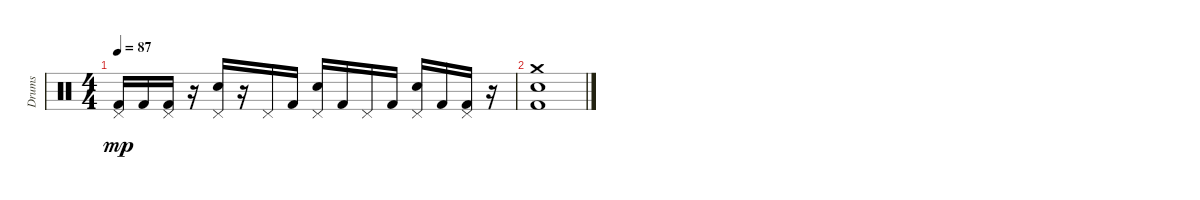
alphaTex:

\track ("Drums" "Drums") {instrument percussion}
\staff {score}
\articulation defaults
\ts (4 4)
\tempo 87
\clef neutral
\ks c
("Pedal Hi-Hat (hit)" "Kick (hit) 2").16{dy mp} "Kick (hit) 2".16 ("Pedal Hi-Hat (hit)" "Kick (hit) 2").16 r.16 ("Pedal Hi-Hat (hit)" "Electric Snare (hit)").16 r.16 "Pedal Hi-Hat (hit)".16 "Kick (hit) 2".16 ("Pedal Hi-Hat (hit)" "Electric Snare (hit)").16 "Kick (hit) 2".16 "Pedal Hi-Hat (hit)".16 "Kick (hit) 2".16 ("Pedal Hi-Hat (hit)" "Electric Snare (hit)").16 "Kick (hit) 2".16 ("Pedal Hi-Hat (hit)" "Kick (hit) 2").16 r.16 |
("Crash medium (hit)" "Electric Snare (hit)" "Kick (hit) 2").1
